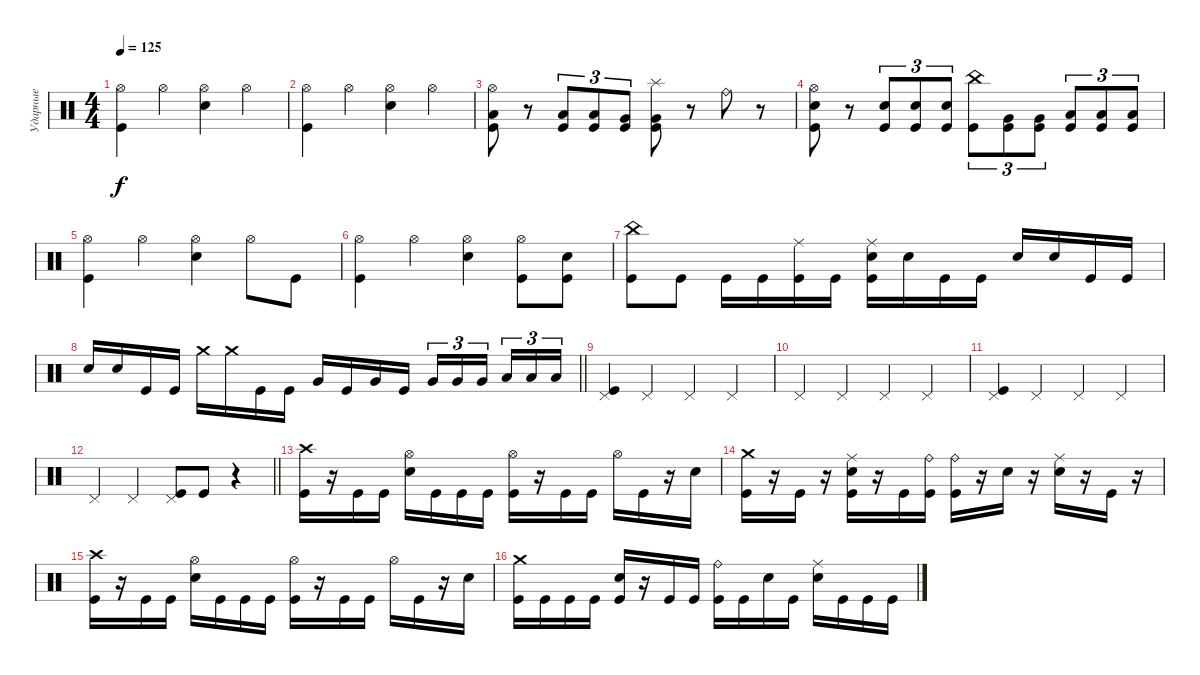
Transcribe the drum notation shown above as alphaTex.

\track ("Ударные" "Ударные") {instrument percussion}
\staff {score}
\articulation defaults
\ts (4 4)
\tempo 125
\clef neutral
\ks c
("Hi-Hat (open)" "Kick (hit)").4{dy f} "Hi-Hat (open)".4 ("Hi-Hat (open)" "Electric Snare (hit)").4 "Hi-Hat (open)".4 |
("Hi-Hat (open)" "Kick (hit)").4 "Hi-Hat (open)".4 ("Hi-Hat (open)" "Electric Snare (hit)").4 "Hi-Hat (open)".4 |
("Hi-Hat (open)" "Low Tom (hit)" "Kick (hit)").8 r.8 ("Low Tom (hit)" "Kick (hit)").8{tu (3 2)} ("Low Tom (hit)" "Kick (hit)").8{tu (3 2)} ("Very Low Tom (hit)" "Kick (hit)").8{tu (3 2)} ("Splash (hit)" "Very Low Tom (hit)" "Kick (hit)").8 r.8 "Ride (bell)".8 r.8 |
("Hi-Hat (open)" "Electric Snare (hit)" "Kick (hit)").8 r.8 ("Electric Snare (hit)" "Kick (hit)").8{tu (3 2)} ("Electric Snare (hit)" "Kick (hit)").8{tu (3 2)} ("Electric Snare (hit)" "Kick (hit)").8{tu (3 2)} ("China (hit)" "Kick (hit)").8{tu (3 2)} ("Very Low Tom (hit)" "Kick (hit)").8{tu (3 2)} ("Very Low Tom (hit)" "Kick (hit)").8{tu (3 2)} ("Low Floor Tom (hit)" "Kick (hit)").8{tu (3 2)} ("Low Floor Tom (hit)" "Kick (hit)").8{tu (3 2)} ("Low Floor Tom (hit)" "Kick (hit)").8{tu (3 2)} |
("Hi-Hat (open)" "Kick (hit)").4 "Hi-Hat (open)".4 ("Hi-Hat (open)" "Electric Snare (hit)").4 "Hi-Hat (open)".8 "Kick (hit)".8 |
("Hi-Hat (open)" "Kick (hit)").4 "Hi-Hat (open)".4 ("Hi-Hat (open)" "Electric Snare (hit)").4 ("Hi-Hat (open)" "Kick (hit)").8 ("Electric Snare (hit)" "Kick (hit)").8 |
("China (hit)" "Kick (hit)").8 "Kick (hit)".8 "Kick (hit)".16 "Kick (hit)".16 ("Ride (middle)" "Kick (hit)").16 "Kick (hit)".16 ("Ride (middle)" "Electric Snare (hit)" "Kick (hit)").16 "Electric Snare (hit)".16 "Kick (hit)".16 "Kick (hit)".16 "Electric Snare (hit)".16 "Electric Snare (hit)".16 "Kick (hit)".16 "Kick (hit)".16 |
\barLineRight lightlight "Electric Snare (hit)".16 "Electric Snare (hit)".16 "Kick (hit)".16 "Kick (hit)".16 "Crash medium (hit)".16 "Crash medium (hit)".16 "Kick (hit)".16 "Kick (hit)".16 "Very Low Tom (hit)".16 "Kick (hit)".16 "Very Low Tom (hit)".16 "Kick (hit)".16 "Very Low Tom (hit)".16{tu (3 2)} "Very Low Tom (hit)".16{tu (3 2)} "Very Low Tom (hit)".16{tu (3 2) beam splitsecondary} "Low Floor Tom (hit)".16{tu (3 2)} "Low Floor Tom (hit)".16{tu (3 2)} "Low Floor Tom (hit)".16{tu (3 2)}
|
\section ("" " ")
("Pedal Hi-Hat (hit)" "Kick (hit)").4 "Pedal Hi-Hat (hit)".4 "Pedal Hi-Hat (hit)".4 "Pedal Hi-Hat (hit)".4 |
"Pedal Hi-Hat (hit)".4 "Pedal Hi-Hat (hit)".4 "Pedal Hi-Hat (hit)".4 "Pedal Hi-Hat (hit)".4 |
("Pedal Hi-Hat (hit)" "Kick (hit)").4 "Pedal Hi-Hat (hit)".4 "Pedal Hi-Hat (hit)".4 "Pedal Hi-Hat (hit)".4 |
\barLineRight lightlight "Pedal Hi-Hat (hit)".4 "Pedal Hi-Hat (hit)".4
("Pedal Hi-Hat (hit)" "Kick (hit)").8 "Kick (hit)".8 r.4 |
\section ("" " ")
("Crash high (hit)" "Kick (hit)").16 r.16 "Kick (hit)".16 "Kick (hit)".16 ("Hi-Hat (open)" "Electric Snare (hit)").16 "Kick (hit)".16 "Kick (hit)".16 "Kick (hit)".16 ("Hi-Hat (open)" "Kick (hit)").16 r.16 "Kick (hit)".16 "Kick (hit)".16 "Hi-Hat (open)".16 "Kick (hit)".16 r.16 "Electric Snare (hit)".16 |
("Crash medium (hit)" "Kick (hit)").16 r.16 "Kick (hit)".16 r.16 ("Ride (middle)" "Electric Snare (hit)" "Kick (hit)").16 r.16 "Kick (hit)".16 ("Ride (bell)" "Kick (hit)").16 ("Ride (bell)" "Kick (hit)").16 r.16 "Electric Snare (hit)".16 r.16 ("Ride (middle)" "Electric Snare (hit)").16 r.16 "Kick (hit)".16 r.16 |
("Crash high (hit)" "Kick (hit)").16 r.16 "Kick (hit)".16 "Kick (hit)".16 ("Hi-Hat (open)" "Electric Snare (hit)").16 "Kick (hit)".16 "Kick (hit)".16 "Kick (hit)".16 ("Hi-Hat (open)" "Kick (hit)").16 r.16 "Kick (hit)".16 "Kick (hit)".16 "Hi-Hat (open)".16 "Kick (hit)".16 r.16 "Electric Snare (hit)".16 |
("Crash medium (hit)" "Kick (hit)").16 "Kick (hit)".16 "Kick (hit)".16 "Kick (hit)".16 ("Electric Snare (hit)" "Kick (hit)").16 r.16 "Kick (hit)".16 "Kick (hit)".16 ("Ride (bell)" "Kick (hit)").16 "Kick (hit)".16 "Electric Snare (hit)".16 "Kick (hit)".16 ("Ride (middle)" "Electric Snare (hit)").16 "Kick (hit)".16 "Kick (hit)".16 "Kick (hit)".16
